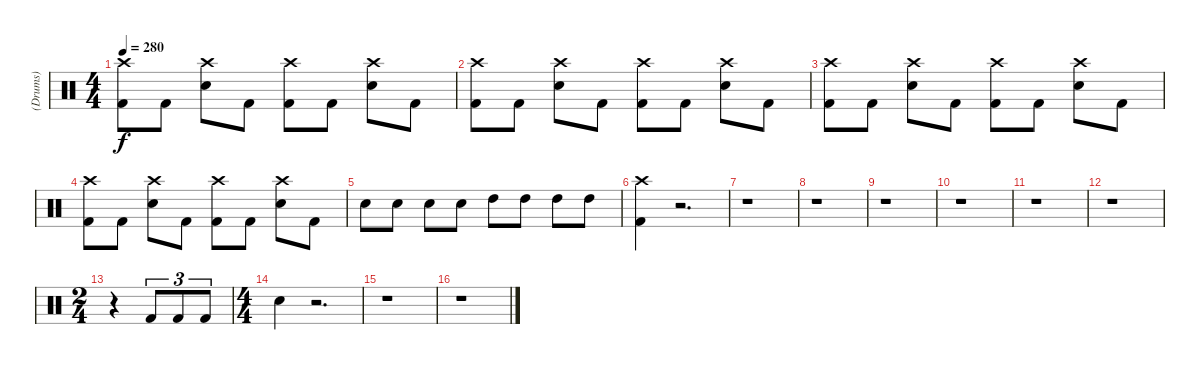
\track ("(Drums)" "(Drums)") {instrument percussion}
\staff {score}
\articulation defaults
\ts (4 4)
\tempo 280
\clef neutral
\ks c
("Crash high (hit)" "Kick (hit) 2").8{dy f} "Kick (hit) 2".8 ("Crash high (hit)" "Snare (hit) 2").8 "Kick (hit) 2".8 ("Crash high (hit)" "Kick (hit) 2").8 "Kick (hit) 2".8 ("Crash high (hit)" "Snare (hit) 2").8 "Kick (hit) 2".8 |
("Crash high (hit)" "Kick (hit) 2").8 "Kick (hit) 2".8 ("Crash high (hit)" "Snare (hit) 2").8 "Kick (hit) 2".8 ("Crash high (hit)" "Kick (hit) 2").8 "Kick (hit) 2".8 ("Crash high (hit)" "Snare (hit) 2").8 "Kick (hit) 2".8 |
("Crash high (hit)" "Kick (hit) 2").8 "Kick (hit) 2".8 ("Crash high (hit)" "Snare (hit) 2").8 "Kick (hit) 2".8 ("Crash high (hit)" "Kick (hit) 2").8 "Kick (hit) 2".8 ("Crash high (hit)" "Snare (hit) 2").8 "Kick (hit) 2".8 |
("Crash high (hit)" "Kick (hit) 2").8 "Kick (hit) 2".8 ("Crash high (hit)" "Snare (hit) 2").8 "Kick (hit) 2".8 ("Crash high (hit)" "Kick (hit) 2").8 "Kick (hit) 2".8 ("Crash high (hit)" "Snare (hit) 2").8 "Kick (hit) 2".8 |
"Snare (hit) 2".8 "Snare (hit) 2".8 "Snare (hit) 2".8 "Snare (hit) 2".8 "High Tom (hit)".8 "High Tom (hit)".8 "High Tom (hit)".8 "High Tom (hit)".8 |
("Kick (hit) 2" "Crash high (hit)").4 r.2{d} |
r.1 |
r.1 |
r.1 |
r.1 |
r.1 |
r.1 |
\ts (2 4)
r.4 "Kick (hit) 2".8{tu (3 2)} "Kick (hit) 2".8{tu (3 2)} "Kick (hit) 2".8{tu (3 2)} |
\ts (4 4)
"Snare (hit) 2".4 r.2{d} |
r.1 |
r.1
